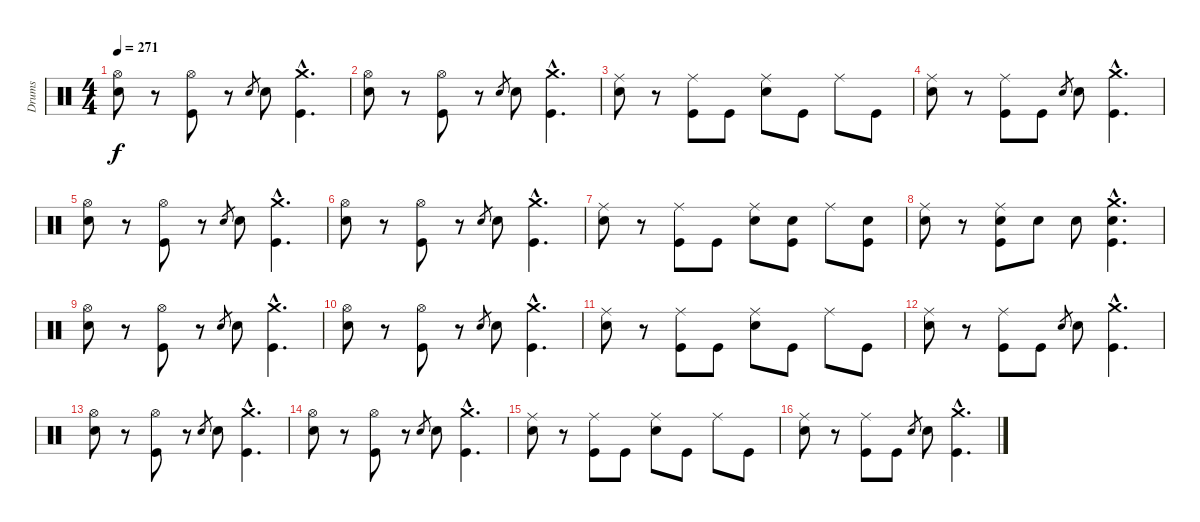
\track ("Drums" "Drums") {instrument percussion}
\staff {score}
\articulation defaults
\ts (4 4)
\tempo 271
\clef neutral
\ks c
("Hi-Hat (open)" "Electric Snare (hit)").8{dy f} r.8 ("Hi-Hat (open)" "Kick (hit)").8 r.8 "Electric Snare (hit)".8{gr} "Electric Snare (hit)".8 ("Crash medium (hit)"{hac} "Kick (hit)"{hac}).4{d} |
("Hi-Hat (open)" "Electric Snare (hit)").8 r.8 ("Hi-Hat (open)" "Kick (hit)").8 r.8 "Electric Snare (hit)".8{gr} "Electric Snare (hit)".8 ("Crash medium (hit)"{hac} "Kick (hit)"{hac}).4{d} |
("Ride (middle)" "Electric Snare (hit)").8 r.8 ("Ride (middle)" "Kick (hit)").8 "Kick (hit)".8 ("Ride (middle)" "Electric Snare (hit)").8 "Kick (hit)".8 "Ride (middle)".8 "Kick (hit)".8 |
("Ride (middle)" "Electric Snare (hit)").8 r.8 ("Ride (middle)" "Kick (hit)").8 "Kick (hit)".8 "Electric Snare (hit)".8{gr} "Electric Snare (hit)".8 ("Crash medium (hit)"{hac} "Kick (hit)"{hac}).4{d} |
("Hi-Hat (open)" "Electric Snare (hit)").8 r.8 ("Hi-Hat (open)" "Kick (hit)").8 r.8 "Electric Snare (hit)".8{gr} "Electric Snare (hit)".8 ("Crash medium (hit)"{hac} "Kick (hit)"{hac}).4{d} |
("Hi-Hat (open)" "Electric Snare (hit)").8 r.8 ("Hi-Hat (open)" "Kick (hit)").8 r.8 "Electric Snare (hit)".8{gr} "Electric Snare (hit)".8 ("Crash medium (hit)"{hac} "Kick (hit)"{hac}).4{d} |
("Ride (middle)" "Electric Snare (hit)").8 r.8 ("Ride (middle)" "Kick (hit)").8 "Kick (hit)".8 ("Ride (middle)" "Electric Snare (hit)").8 ("Electric Snare (hit)" "Kick (hit)").8 "Ride (middle)".8 ("Electric Snare (hit)" "Kick (hit)").8 |
("Ride (middle)" "Electric Snare (hit)").8 r.8 ("Ride (middle)" "Electric Snare (hit)" "Kick (hit)").8 "Electric Snare (hit)".8 "Electric Snare (hit)".8 ("Crash medium (hit)"{hac} "Electric Snare (hit)"{hac} "Kick (hit)"{hac}).4{d} |
("Hi-Hat (open)" "Electric Snare (hit)").8 r.8 ("Hi-Hat (open)" "Kick (hit)").8 r.8 "Electric Snare (hit)".8{gr} "Electric Snare (hit)".8 ("Crash medium (hit)"{hac} "Kick (hit)"{hac}).4{d} |
("Hi-Hat (open)" "Electric Snare (hit)").8 r.8 ("Hi-Hat (open)" "Kick (hit)").8 r.8 "Electric Snare (hit)".8{gr} "Electric Snare (hit)".8 ("Crash medium (hit)"{hac} "Kick (hit)"{hac}).4{d} |
("Ride (middle)" "Electric Snare (hit)").8 r.8 ("Ride (middle)" "Kick (hit)").8 "Kick (hit)".8 ("Ride (middle)" "Electric Snare (hit)").8 "Kick (hit)".8 "Ride (middle)".8 "Kick (hit)".8 |
("Ride (middle)" "Electric Snare (hit)").8 r.8 ("Ride (middle)" "Kick (hit)").8 "Kick (hit)".8 "Electric Snare (hit)".8{gr} "Electric Snare (hit)".8 ("Crash medium (hit)"{hac} "Kick (hit)"{hac}).4{d} |
("Hi-Hat (open)" "Electric Snare (hit)").8 r.8 ("Hi-Hat (open)" "Kick (hit)").8 r.8 "Electric Snare (hit)".8{gr} "Electric Snare (hit)".8 ("Crash medium (hit)"{hac} "Kick (hit)"{hac}).4{d} |
("Hi-Hat (open)" "Electric Snare (hit)").8 r.8 ("Hi-Hat (open)" "Kick (hit)").8 r.8 "Electric Snare (hit)".8{gr} "Electric Snare (hit)".8 ("Crash medium (hit)"{hac} "Kick (hit)"{hac}).4{d} |
("Ride (middle)" "Electric Snare (hit)").8 r.8 ("Ride (middle)" "Kick (hit)").8 "Kick (hit)".8 ("Ride (middle)" "Electric Snare (hit)").8 "Kick (hit)".8 "Ride (middle)".8 "Kick (hit)".8 |
("Ride (middle)" "Electric Snare (hit)").8 r.8 ("Ride (middle)" "Kick (hit)").8 "Kick (hit)".8 "Electric Snare (hit)".8{gr} "Electric Snare (hit)".8 ("Crash medium (hit)"{hac} "Kick (hit)"{hac}).4{d}
